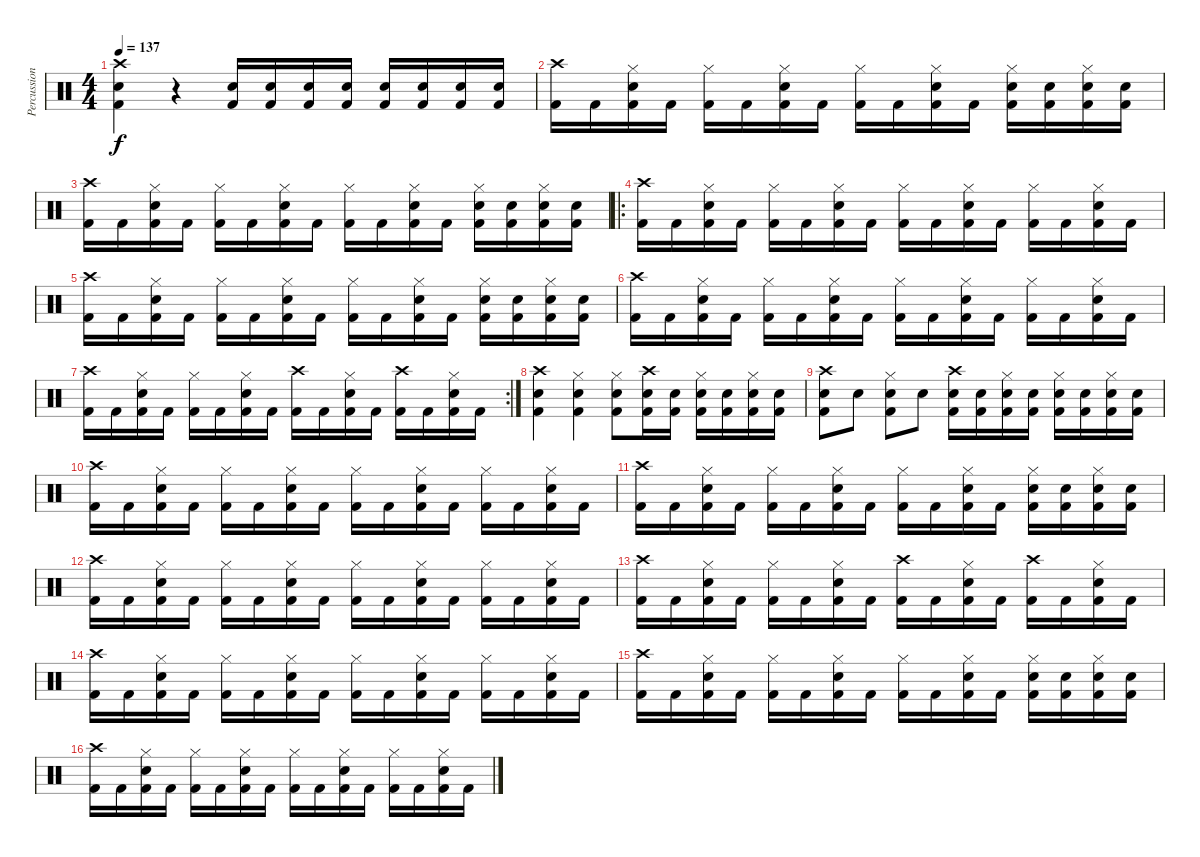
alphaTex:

\track ("Percussion" "Percussion") {instrument percussion}
\staff {score}
\articulation defaults
\ts (4 4)
\tempo 137
\clef neutral
\ks c
("Crash high (hit)" "Snare (hit) 2" "Kick (hit) 2").4{dy f} r.4 ("Snare (hit) 2" "Kick (hit) 2").16 ("Snare (hit) 2" "Kick (hit) 2").16 ("Snare (hit) 2" "Kick (hit) 2").16 ("Snare (hit) 2" "Kick (hit) 2").16 ("Snare (hit) 2" "Kick (hit) 2").16 ("Snare (hit) 2" "Kick (hit) 2").16 ("Snare (hit) 2" "Kick (hit) 2").16 ("Snare (hit) 2" "Kick (hit) 2").16 |
("Crash high (hit)" "Kick (hit) 2").16 "Kick (hit) 2".16 ("Hi-Hat (closed)" "Snare (hit) 2" "Kick (hit) 2").16 "Kick (hit) 2".16 ("Hi-Hat (closed)" "Kick (hit) 2").16 "Kick (hit) 2".16 ("Hi-Hat (closed)" "Snare (hit) 2" "Kick (hit) 2").16 "Kick (hit) 2".16 ("Hi-Hat (closed)" "Kick (hit) 2").16 "Kick (hit) 2".16 ("Hi-Hat (closed)" "Snare (hit) 2" "Kick (hit) 2").16 "Kick (hit) 2".16 ("Hi-Hat (closed)" "Snare (hit) 2" "Kick (hit) 2").16 ("Snare (hit) 2" "Kick (hit) 2").16 ("Hi-Hat (closed)" "Snare (hit) 2" "Kick (hit) 2").16 ("Snare (hit) 2" "Kick (hit) 2").16 |
("Crash high (hit)" "Kick (hit) 2").16 "Kick (hit) 2".16 ("Hi-Hat (closed)" "Snare (hit) 2" "Kick (hit) 2").16 "Kick (hit) 2".16 ("Hi-Hat (closed)" "Kick (hit) 2").16 "Kick (hit) 2".16 ("Hi-Hat (closed)" "Snare (hit) 2" "Kick (hit) 2").16 "Kick (hit) 2".16 ("Hi-Hat (closed)" "Kick (hit) 2").16 "Kick (hit) 2".16 ("Hi-Hat (closed)" "Snare (hit) 2" "Kick (hit) 2").16 "Kick (hit) 2".16 ("Hi-Hat (closed)" "Snare (hit) 2" "Kick (hit) 2").16 ("Snare (hit) 2" "Kick (hit) 2").16 ("Hi-Hat (closed)" "Snare (hit) 2" "Kick (hit) 2").16 ("Snare (hit) 2" "Kick (hit) 2").16 |
\ro
("Crash high (hit)" "Kick (hit) 2").16 "Kick (hit) 2".16 ("Hi-Hat (closed)" "Snare (hit) 2" "Kick (hit) 2").16 "Kick (hit) 2".16 ("Hi-Hat (closed)" "Kick (hit) 2").16 "Kick (hit) 2".16 ("Hi-Hat (closed)" "Snare (hit) 2" "Kick (hit) 2").16 "Kick (hit) 2".16 ("Hi-Hat (closed)" "Kick (hit) 2").16 "Kick (hit) 2".16 ("Hi-Hat (closed)" "Snare (hit) 2" "Kick (hit) 2").16 "Kick (hit) 2".16 ("Hi-Hat (closed)" "Kick (hit) 2").16 "Kick (hit) 2".16 ("Hi-Hat (closed)" "Snare (hit) 2" "Kick (hit) 2").16 "Kick (hit) 2".16 |
("Crash high (hit)" "Kick (hit) 2").16 "Kick (hit) 2".16 ("Hi-Hat (closed)" "Snare (hit) 2" "Kick (hit) 2").16 "Kick (hit) 2".16 ("Hi-Hat (closed)" "Kick (hit) 2").16 "Kick (hit) 2".16 ("Hi-Hat (closed)" "Snare (hit) 2" "Kick (hit) 2").16 "Kick (hit) 2".16 ("Hi-Hat (closed)" "Kick (hit) 2").16 "Kick (hit) 2".16 ("Hi-Hat (closed)" "Snare (hit) 2" "Kick (hit) 2").16 "Kick (hit) 2".16 ("Hi-Hat (closed)" "Snare (hit) 2" "Kick (hit) 2").16 ("Snare (hit) 2" "Kick (hit) 2").16 ("Hi-Hat (closed)" "Snare (hit) 2" "Kick (hit) 2").16 ("Snare (hit) 2" "Kick (hit) 2").16 |
("Crash high (hit)" "Kick (hit) 2").16 "Kick (hit) 2".16 ("Hi-Hat (closed)" "Snare (hit) 2" "Kick (hit) 2").16 "Kick (hit) 2".16 ("Hi-Hat (closed)" "Kick (hit) 2").16 "Kick (hit) 2".16 ("Hi-Hat (closed)" "Snare (hit) 2" "Kick (hit) 2").16 "Kick (hit) 2".16 ("Hi-Hat (closed)" "Kick (hit) 2").16 "Kick (hit) 2".16 ("Hi-Hat (closed)" "Snare (hit) 2" "Kick (hit) 2").16 "Kick (hit) 2".16 ("Hi-Hat (closed)" "Kick (hit) 2").16 "Kick (hit) 2".16 ("Hi-Hat (closed)" "Snare (hit) 2" "Kick (hit) 2").16 "Kick (hit) 2".16 |
\rc 2
("Crash high (hit)" "Kick (hit) 2").16 "Kick (hit) 2".16 ("Hi-Hat (closed)" "Snare (hit) 2" "Kick (hit) 2").16 "Kick (hit) 2".16 ("Hi-Hat (closed)" "Kick (hit) 2").16 "Kick (hit) 2".16 ("Hi-Hat (closed)" "Snare (hit) 2" "Kick (hit) 2").16 "Kick (hit) 2".16 ("Crash high (hit)" "Kick (hit) 2").16 "Kick (hit) 2".16 ("Hi-Hat (closed)" "Snare (hit) 2" "Kick (hit) 2").16 "Kick (hit) 2".16 ("Crash high (hit)" "Kick (hit) 2").16 "Kick (hit) 2".16 ("Hi-Hat (closed)" "Snare (hit) 2" "Kick (hit) 2").16 "Kick (hit) 2".16 |
("Crash high (hit)" "Snare (hit) 2" "Kick (hit) 2").4 ("Hi-Hat (closed)" "Snare (hit) 2" "Kick (hit) 2").4 ("Hi-Hat (closed)" "Snare (hit) 2" "Kick (hit) 2").8 ("Crash high (hit)" "Snare (hit) 2" "Kick (hit) 2").16 ("Snare (hit) 2" "Kick (hit) 2").16 ("Hi-Hat (closed)" "Snare (hit) 2" "Kick (hit) 2").16 ("Snare (hit) 2" "Kick (hit) 2").16 ("Hi-Hat (closed)" "Snare (hit) 2" "Kick (hit) 2").16 ("Snare (hit) 2" "Kick (hit) 2").16 |
("Crash high (hit)" "Snare (hit) 2" "Kick (hit) 2").8 "Snare (hit) 2".8 ("Hi-Hat (closed)" "Snare (hit) 2" "Kick (hit) 2").8 "Snare (hit) 2".8 ("Crash high (hit)" "Snare (hit) 2" "Kick (hit) 2").16 ("Snare (hit) 2" "Kick (hit) 2").16 ("Hi-Hat (closed)" "Snare (hit) 2" "Kick (hit) 2").16 ("Snare (hit) 2" "Kick (hit) 2").16 ("Hi-Hat (closed)" "Snare (hit) 2" "Kick (hit) 2").16 ("Snare (hit) 2" "Kick (hit) 2").16 ("Hi-Hat (closed)" "Snare (hit) 2" "Kick (hit) 2").16 ("Snare (hit) 2" "Kick (hit) 2").16 |
("Crash high (hit)" "Kick (hit) 2").16 "Kick (hit) 2".16 ("Hi-Hat (closed)" "Snare (hit) 2" "Kick (hit) 2").16 "Kick (hit) 2".16 ("Hi-Hat (closed)" "Kick (hit) 2").16 "Kick (hit) 2".16 ("Hi-Hat (closed)" "Snare (hit) 2" "Kick (hit) 2").16 "Kick (hit) 2".16 ("Hi-Hat (closed)" "Kick (hit) 2").16 "Kick (hit) 2".16 ("Hi-Hat (closed)" "Snare (hit) 2" "Kick (hit) 2").16 "Kick (hit) 2".16 ("Hi-Hat (closed)" "Kick (hit) 2").16 "Kick (hit) 2".16 ("Hi-Hat (closed)" "Snare (hit) 2" "Kick (hit) 2").16 "Kick (hit) 2".16 |
("Crash high (hit)" "Kick (hit) 2").16 "Kick (hit) 2".16 ("Hi-Hat (closed)" "Snare (hit) 2" "Kick (hit) 2").16 "Kick (hit) 2".16 ("Hi-Hat (closed)" "Kick (hit) 2").16 "Kick (hit) 2".16 ("Hi-Hat (closed)" "Snare (hit) 2" "Kick (hit) 2").16 "Kick (hit) 2".16 ("Hi-Hat (closed)" "Kick (hit) 2").16 "Kick (hit) 2".16 ("Hi-Hat (closed)" "Snare (hit) 2" "Kick (hit) 2").16 "Kick (hit) 2".16 ("Hi-Hat (closed)" "Snare (hit) 2" "Kick (hit) 2").16 ("Snare (hit) 2" "Kick (hit) 2").16 ("Hi-Hat (closed)" "Snare (hit) 2" "Kick (hit) 2").16 ("Snare (hit) 2" "Kick (hit) 2").16 |
("Crash high (hit)" "Kick (hit) 2").16 "Kick (hit) 2".16 ("Hi-Hat (closed)" "Snare (hit) 2" "Kick (hit) 2").16 "Kick (hit) 2".16 ("Hi-Hat (closed)" "Kick (hit) 2").16 "Kick (hit) 2".16 ("Hi-Hat (closed)" "Snare (hit) 2" "Kick (hit) 2").16 "Kick (hit) 2".16 ("Hi-Hat (closed)" "Kick (hit) 2").16 "Kick (hit) 2".16 ("Hi-Hat (closed)" "Snare (hit) 2" "Kick (hit) 2").16 "Kick (hit) 2".16 ("Hi-Hat (closed)" "Kick (hit) 2").16 "Kick (hit) 2".16 ("Hi-Hat (closed)" "Snare (hit) 2" "Kick (hit) 2").16 "Kick (hit) 2".16 |
("Crash high (hit)" "Kick (hit) 2").16 "Kick (hit) 2".16 ("Hi-Hat (closed)" "Snare (hit) 2" "Kick (hit) 2").16 "Kick (hit) 2".16 ("Hi-Hat (closed)" "Kick (hit) 2").16 "Kick (hit) 2".16 ("Hi-Hat (closed)" "Snare (hit) 2" "Kick (hit) 2").16 "Kick (hit) 2".16 ("Crash high (hit)" "Kick (hit) 2").16 "Kick (hit) 2".16 ("Hi-Hat (closed)" "Snare (hit) 2" "Kick (hit) 2").16 "Kick (hit) 2".16 ("Crash high (hit)" "Kick (hit) 2").16 "Kick (hit) 2".16 ("Hi-Hat (closed)" "Snare (hit) 2" "Kick (hit) 2").16 "Kick (hit) 2".16 |
("Crash high (hit)" "Kick (hit) 2").16 "Kick (hit) 2".16 ("Hi-Hat (closed)" "Snare (hit) 2" "Kick (hit) 2").16 "Kick (hit) 2".16 ("Hi-Hat (closed)" "Kick (hit) 2").16 "Kick (hit) 2".16 ("Hi-Hat (closed)" "Snare (hit) 2" "Kick (hit) 2").16 "Kick (hit) 2".16 ("Hi-Hat (closed)" "Kick (hit) 2").16 "Kick (hit) 2".16 ("Hi-Hat (closed)" "Snare (hit) 2" "Kick (hit) 2").16 "Kick (hit) 2".16 ("Hi-Hat (closed)" "Kick (hit) 2").16 "Kick (hit) 2".16 ("Hi-Hat (closed)" "Snare (hit) 2" "Kick (hit) 2").16 "Kick (hit) 2".16 |
("Crash high (hit)" "Kick (hit) 2").16 "Kick (hit) 2".16 ("Hi-Hat (closed)" "Snare (hit) 2" "Kick (hit) 2").16 "Kick (hit) 2".16 ("Hi-Hat (closed)" "Kick (hit) 2").16 "Kick (hit) 2".16 ("Hi-Hat (closed)" "Snare (hit) 2" "Kick (hit) 2").16 "Kick (hit) 2".16 ("Hi-Hat (closed)" "Kick (hit) 2").16 "Kick (hit) 2".16 ("Hi-Hat (closed)" "Snare (hit) 2" "Kick (hit) 2").16 "Kick (hit) 2".16 ("Hi-Hat (closed)" "Snare (hit) 2" "Kick (hit) 2").16 ("Snare (hit) 2" "Kick (hit) 2").16 ("Hi-Hat (closed)" "Snare (hit) 2" "Kick (hit) 2").16 ("Snare (hit) 2" "Kick (hit) 2").16 |
("Crash high (hit)" "Kick (hit) 2").16 "Kick (hit) 2".16 ("Hi-Hat (closed)" "Snare (hit) 2" "Kick (hit) 2").16 "Kick (hit) 2".16 ("Hi-Hat (closed)" "Kick (hit) 2").16 "Kick (hit) 2".16 ("Hi-Hat (closed)" "Snare (hit) 2" "Kick (hit) 2").16 "Kick (hit) 2".16 ("Hi-Hat (closed)" "Kick (hit) 2").16 "Kick (hit) 2".16 ("Hi-Hat (closed)" "Snare (hit) 2" "Kick (hit) 2").16 "Kick (hit) 2".16 ("Hi-Hat (closed)" "Kick (hit) 2").16 "Kick (hit) 2".16 ("Hi-Hat (closed)" "Snare (hit) 2" "Kick (hit) 2").16 "Kick (hit) 2".16
